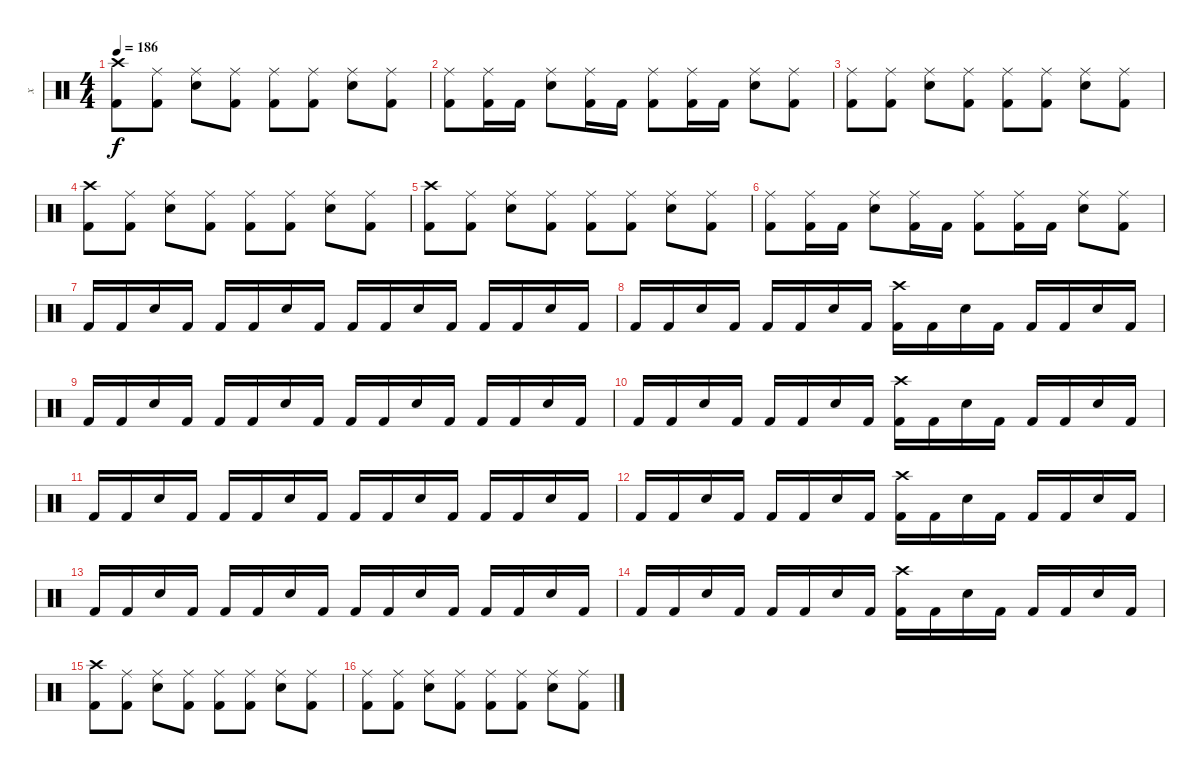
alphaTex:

\track ("x" "x") {instrument percussion}
\staff {score}
\articulation defaults
\ts (4 4)
\tempo 186
\clef neutral
\ks c
("Crash high (hit)" "Kick (hit) 2").8{dy f} ("Ride (middle)" "Kick (hit) 2").8 ("Ride (middle)" "Snare (hit) 2").8 ("Ride (middle)" "Kick (hit) 2").8 ("Ride (middle)" "Kick (hit) 2").8 ("Ride (middle)" "Kick (hit) 2").8 ("Ride (middle)" "Snare (hit) 2").8 ("Ride (middle)" "Kick (hit) 2").8 |
("Ride (middle)" "Kick (hit) 2").8 ("Ride (middle)" "Kick (hit) 2").16 "Kick (hit) 2".16 ("Ride (middle)" "Snare (hit) 2").8 ("Ride (middle)" "Kick (hit) 2").16 "Kick (hit) 2".16 ("Ride (middle)" "Kick (hit) 2").8 ("Ride (middle)" "Kick (hit) 2").16 "Kick (hit) 2".16 ("Ride (middle)" "Snare (hit) 2").8 ("Ride (middle)" "Kick (hit) 2").8 |
("Ride (middle)" "Kick (hit) 2").8 ("Ride (middle)" "Kick (hit) 2").8 ("Ride (middle)" "Snare (hit) 2").8 ("Ride (middle)" "Kick (hit) 2").8 ("Ride (middle)" "Kick (hit) 2").8 ("Ride (middle)" "Kick (hit) 2").8 ("Ride (middle)" "Snare (hit) 2").8 ("Ride (middle)" "Kick (hit) 2").8 |
("Crash high (hit)" "Kick (hit) 2").8 ("Ride (middle)" "Kick (hit) 2").8 ("Ride (middle)" "Snare (hit) 2").8 ("Ride (middle)" "Kick (hit) 2").8 ("Ride (middle)" "Kick (hit) 2").8 ("Ride (middle)" "Kick (hit) 2").8 ("Ride (middle)" "Snare (hit) 2").8 ("Ride (middle)" "Kick (hit) 2").8 |
("Crash high (hit)" "Kick (hit) 2").8 ("Ride (middle)" "Kick (hit) 2").8 ("Ride (middle)" "Snare (hit) 2").8 ("Ride (middle)" "Kick (hit) 2").8 ("Ride (middle)" "Kick (hit) 2").8 ("Ride (middle)" "Kick (hit) 2").8 ("Ride (middle)" "Snare (hit) 2").8 ("Ride (middle)" "Kick (hit) 2").8 |
("Ride (middle)" "Kick (hit) 2").8 ("Ride (middle)" "Kick (hit) 2").16 "Kick (hit) 2".16 ("Ride (middle)" "Snare (hit) 2").8 ("Ride (middle)" "Kick (hit) 2").16 "Kick (hit) 2".16 ("Ride (middle)" "Kick (hit) 2").8 ("Ride (middle)" "Kick (hit) 2").16 "Kick (hit) 2".16 ("Ride (middle)" "Snare (hit) 2").8 ("Ride (middle)" "Kick (hit) 2").8 |
"Kick (hit) 2".16 "Kick (hit) 2".16 "Snare (hit) 2".16 "Kick (hit) 2".16 "Kick (hit) 2".16 "Kick (hit) 2".16 "Snare (hit) 2".16 "Kick (hit) 2".16 "Kick (hit) 2".16 "Kick (hit) 2".16 "Snare (hit) 2".16 "Kick (hit) 2".16 "Kick (hit) 2".16 "Kick (hit) 2".16 "Snare (hit) 2".16 "Kick (hit) 2".16 |
"Kick (hit) 2".16 "Kick (hit) 2".16 "Snare (hit) 2".16 "Kick (hit) 2".16 "Kick (hit) 2".16 "Kick (hit) 2".16 "Snare (hit) 2".16 "Kick (hit) 2".16 ("Crash high (hit)" "Kick (hit) 2").16 "Kick (hit) 2".16 "Snare (hit) 2".16 "Kick (hit) 2".16 "Kick (hit) 2".16 "Kick (hit) 2".16 "Snare (hit) 2".16 "Kick (hit) 2".16 |
"Kick (hit) 2".16 "Kick (hit) 2".16 "Snare (hit) 2".16 "Kick (hit) 2".16 "Kick (hit) 2".16 "Kick (hit) 2".16 "Snare (hit) 2".16 "Kick (hit) 2".16 "Kick (hit) 2".16 "Kick (hit) 2".16 "Snare (hit) 2".16 "Kick (hit) 2".16 "Kick (hit) 2".16 "Kick (hit) 2".16 "Snare (hit) 2".16 "Kick (hit) 2".16 |
"Kick (hit) 2".16 "Kick (hit) 2".16 "Snare (hit) 2".16 "Kick (hit) 2".16 "Kick (hit) 2".16 "Kick (hit) 2".16 "Snare (hit) 2".16 "Kick (hit) 2".16 ("Crash high (hit)" "Kick (hit) 2").16 "Kick (hit) 2".16 "Snare (hit) 2".16 "Kick (hit) 2".16 "Kick (hit) 2".16 "Kick (hit) 2".16 "Snare (hit) 2".16 "Kick (hit) 2".16 |
"Kick (hit) 2".16 "Kick (hit) 2".16 "Snare (hit) 2".16 "Kick (hit) 2".16 "Kick (hit) 2".16 "Kick (hit) 2".16 "Snare (hit) 2".16 "Kick (hit) 2".16 "Kick (hit) 2".16 "Kick (hit) 2".16 "Snare (hit) 2".16 "Kick (hit) 2".16 "Kick (hit) 2".16 "Kick (hit) 2".16 "Snare (hit) 2".16 "Kick (hit) 2".16 |
"Kick (hit) 2".16 "Kick (hit) 2".16 "Snare (hit) 2".16 "Kick (hit) 2".16 "Kick (hit) 2".16 "Kick (hit) 2".16 "Snare (hit) 2".16 "Kick (hit) 2".16 ("Crash high (hit)" "Kick (hit) 2").16 "Kick (hit) 2".16 "Snare (hit) 2".16 "Kick (hit) 2".16 "Kick (hit) 2".16 "Kick (hit) 2".16 "Snare (hit) 2".16 "Kick (hit) 2".16 |
"Kick (hit) 2".16 "Kick (hit) 2".16 "Snare (hit) 2".16 "Kick (hit) 2".16 "Kick (hit) 2".16 "Kick (hit) 2".16 "Snare (hit) 2".16 "Kick (hit) 2".16 "Kick (hit) 2".16 "Kick (hit) 2".16 "Snare (hit) 2".16 "Kick (hit) 2".16 "Kick (hit) 2".16 "Kick (hit) 2".16 "Snare (hit) 2".16 "Kick (hit) 2".16 |
"Kick (hit) 2".16 "Kick (hit) 2".16 "Snare (hit) 2".16 "Kick (hit) 2".16 "Kick (hit) 2".16 "Kick (hit) 2".16 "Snare (hit) 2".16 "Kick (hit) 2".16 ("Crash high (hit)" "Kick (hit) 2").16 "Kick (hit) 2".16 "Snare (hit) 2".16 "Kick (hit) 2".16 "Kick (hit) 2".16 "Kick (hit) 2".16 "Snare (hit) 2".16 "Kick (hit) 2".16 |
("Crash high (hit)" "Kick (hit) 2").8 ("Ride (middle)" "Kick (hit) 2").8 ("Ride (middle)" "Snare (hit) 2").8 ("Ride (middle)" "Kick (hit) 2").8 ("Ride (middle)" "Kick (hit) 2").8 ("Ride (middle)" "Kick (hit) 2").8 ("Ride (middle)" "Snare (hit) 2").8 ("Ride (middle)" "Kick (hit) 2").8 |
("Ride (middle)" "Kick (hit) 2").8 ("Ride (middle)" "Kick (hit) 2").8 ("Ride (middle)" "Snare (hit) 2").8 ("Ride (middle)" "Kick (hit) 2").8 ("Ride (middle)" "Kick (hit) 2").8 ("Ride (middle)" "Kick (hit) 2").8 ("Ride (middle)" "Snare (hit) 2").8 ("Ride (middle)" "Kick (hit) 2").8
